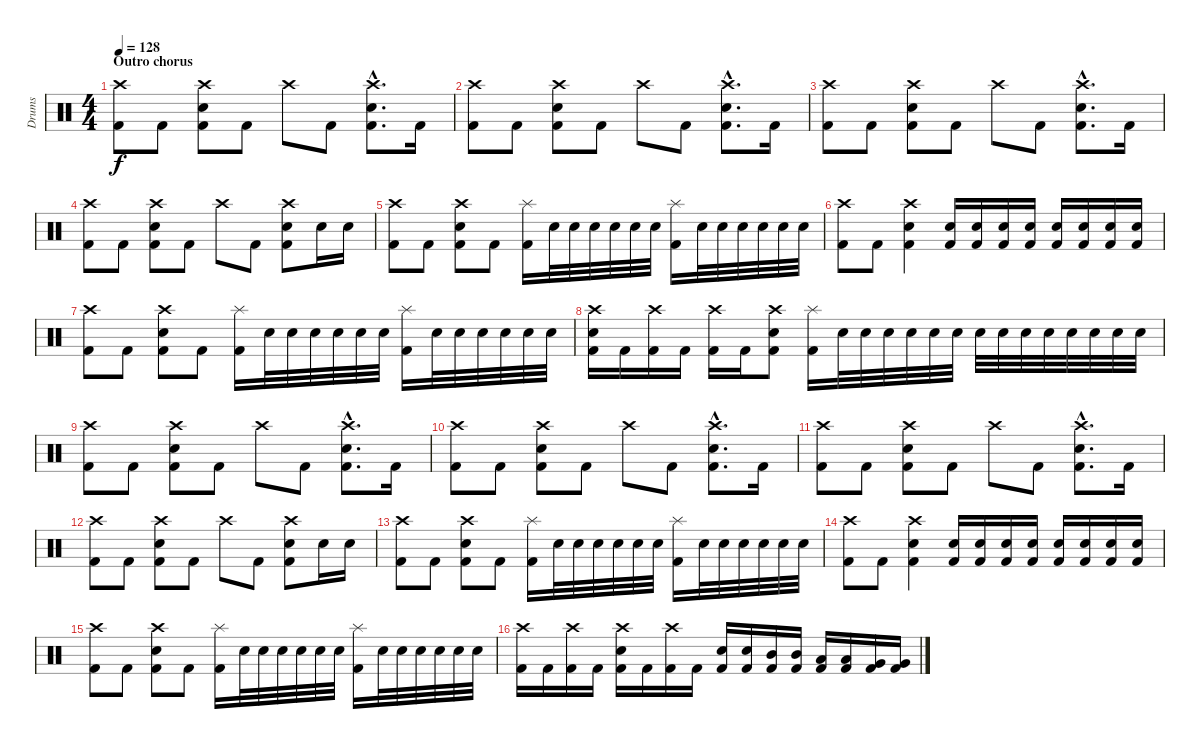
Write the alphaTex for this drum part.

\track ("Drums" "Drums") {instrument percussion}
\staff {score}
\articulation defaults
\ts (4 4)
\section ("" "Outro chorus")
\tempo 128
\clef neutral
\ks c
("Crash high (hit)" "Kick (hit) 2").8{dy f} "Kick (hit) 2".8 ("Crash high (hit)" "Electric Snare (hit)" "Kick (hit) 2").8 "Kick (hit) 2".8 "Crash high (hit)".8 "Kick (hit) 2".8 ("Crash high (hit)"{hac} "Electric Snare (hit)"{hac} "Kick (hit) 2"{hac}).8{d} "Kick (hit) 2".16 |
("Crash high (hit)" "Kick (hit) 2").8 "Kick (hit) 2".8 ("Crash high (hit)" "Electric Snare (hit)" "Kick (hit) 2").8 "Kick (hit) 2".8 "Crash high (hit)".8 "Kick (hit) 2".8 ("Crash high (hit)"{hac} "Electric Snare (hit)"{hac} "Kick (hit) 2"{hac}).8{d} "Kick (hit) 2".16 |
("Crash high (hit)" "Kick (hit) 2").8 "Kick (hit) 2".8 ("Crash high (hit)" "Electric Snare (hit)" "Kick (hit) 2").8 "Kick (hit) 2".8 "Crash high (hit)".8 "Kick (hit) 2".8 ("Crash high (hit)"{hac} "Electric Snare (hit)"{hac} "Kick (hit) 2"{hac}).8{d} "Kick (hit) 2".16 |
("Crash high (hit)" "Kick (hit) 2").8 "Kick (hit) 2".8 ("Crash high (hit)" "Electric Snare (hit)" "Kick (hit) 2").8 "Kick (hit) 2".8 "Crash high (hit)".8 "Kick (hit) 2".8 ("Crash high (hit)" "Electric Snare (hit)" "Kick (hit) 2").8 "Electric Snare (hit)".16 "Electric Snare (hit)".16 |
("Crash high (hit)" "Kick (hit) 2").8 "Kick (hit) 2".8 ("Crash high (hit)" "Electric Snare (hit)" "Kick (hit) 2").8 "Kick (hit) 2".8 ("Splash (hit)" "Kick (hit) 2").16 "Electric Snare (hit)".32 "Electric Snare (hit)".32 "Electric Snare (hit)".32 "Electric Snare (hit)".32 "Electric Snare (hit)".32 "Electric Snare (hit)".32 ("Splash (hit)" "Kick (hit) 2").16 "Electric Snare (hit)".32 "Electric Snare (hit)".32 "Electric Snare (hit)".32 "Electric Snare (hit)".32 "Electric Snare (hit)".32 "Electric Snare (hit)".32 |
("Crash high (hit)" "Kick (hit) 2").8 "Kick (hit) 2".8 ("Crash high (hit)" "Electric Snare (hit)" "Kick (hit) 2").4 ("Electric Snare (hit)" "Kick (hit) 2").16 ("Electric Snare (hit)" "Kick (hit) 2").16 ("Electric Snare (hit)" "Kick (hit) 2").16 ("Electric Snare (hit)" "Kick (hit) 2").16 ("Electric Snare (hit)" "Kick (hit) 2").16 ("Electric Snare (hit)" "Kick (hit) 2").16 ("Electric Snare (hit)" "Kick (hit) 2").16 ("Electric Snare (hit)" "Kick (hit) 2").16 |
("Crash high (hit)" "Kick (hit) 2").8 "Kick (hit) 2".8 ("Crash high (hit)" "Electric Snare (hit)" "Kick (hit) 2").8 "Kick (hit) 2".8 ("Splash (hit)" "Kick (hit) 2").16 "Electric Snare (hit)".32 "Electric Snare (hit)".32 "Electric Snare (hit)".32 "Electric Snare (hit)".32 "Electric Snare (hit)".32 "Electric Snare (hit)".32 ("Splash (hit)" "Kick (hit) 2").16 "Electric Snare (hit)".32 "Electric Snare (hit)".32 "Electric Snare (hit)".32 "Electric Snare (hit)".32 "Electric Snare (hit)".32 "Electric Snare (hit)".32 |
("Crash high (hit)" "Electric Snare (hit)" "Kick (hit) 2").16 "Kick (hit) 2".16 ("Crash high (hit)" "Kick (hit) 2").16 "Kick (hit) 2".16 ("Crash high (hit)" "Kick (hit) 2").16 "Kick (hit) 2".16 ("Crash high (hit)" "Electric Snare (hit)" "Kick (hit) 2").8 ("Splash (hit)" "Kick (hit) 2").16 "Electric Snare (hit)".32 "Electric Snare (hit)".32 "Electric Snare (hit)".32 "Electric Snare (hit)".32 "Electric Snare (hit)".32 "Electric Snare (hit)".32 "Electric Snare (hit)".32 "Electric Snare (hit)".32 "Electric Snare (hit)".32 "Electric Snare (hit)".32 "Electric Snare (hit)".32 "Electric Snare (hit)".32 "Electric Snare (hit)".32 "Electric Snare (hit)".32 |
("Crash high (hit)" "Kick (hit) 2").8 "Kick (hit) 2".8 ("Crash high (hit)" "Electric Snare (hit)" "Kick (hit) 2").8 "Kick (hit) 2".8 "Crash high (hit)".8 "Kick (hit) 2".8 ("Crash high (hit)"{hac} "Electric Snare (hit)"{hac} "Kick (hit) 2"{hac}).8{d} "Kick (hit) 2".16 |
("Crash high (hit)" "Kick (hit) 2").8 "Kick (hit) 2".8 ("Crash high (hit)" "Electric Snare (hit)" "Kick (hit) 2").8 "Kick (hit) 2".8 "Crash high (hit)".8 "Kick (hit) 2".8 ("Crash high (hit)"{hac} "Electric Snare (hit)"{hac} "Kick (hit) 2"{hac}).8{d} "Kick (hit) 2".16 |
("Crash high (hit)" "Kick (hit) 2").8 "Kick (hit) 2".8 ("Crash high (hit)" "Electric Snare (hit)" "Kick (hit) 2").8 "Kick (hit) 2".8 "Crash high (hit)".8 "Kick (hit) 2".8 ("Crash high (hit)"{hac} "Electric Snare (hit)"{hac} "Kick (hit) 2"{hac}).8{d} "Kick (hit) 2".16 |
("Crash high (hit)" "Kick (hit) 2").8 "Kick (hit) 2".8 ("Crash high (hit)" "Electric Snare (hit)" "Kick (hit) 2").8 "Kick (hit) 2".8 "Crash high (hit)".8 "Kick (hit) 2".8 ("Crash high (hit)" "Electric Snare (hit)" "Kick (hit) 2").8 "Electric Snare (hit)".16 "Electric Snare (hit)".16 |
("Crash high (hit)" "Kick (hit) 2").8 "Kick (hit) 2".8 ("Crash high (hit)" "Electric Snare (hit)" "Kick (hit) 2").8 "Kick (hit) 2".8 ("Splash (hit)" "Kick (hit) 2").16 "Electric Snare (hit)".32 "Electric Snare (hit)".32 "Electric Snare (hit)".32 "Electric Snare (hit)".32 "Electric Snare (hit)".32 "Electric Snare (hit)".32 ("Splash (hit)" "Kick (hit) 2").16 "Electric Snare (hit)".32 "Electric Snare (hit)".32 "Electric Snare (hit)".32 "Electric Snare (hit)".32 "Electric Snare (hit)".32 "Electric Snare (hit)".32 |
("Crash high (hit)" "Kick (hit) 2").8 "Kick (hit) 2".8 ("Crash high (hit)" "Electric Snare (hit)" "Kick (hit) 2").4 ("Electric Snare (hit)" "Kick (hit) 2").16 ("Electric Snare (hit)" "Kick (hit) 2").16 ("Electric Snare (hit)" "Kick (hit) 2").16 ("Electric Snare (hit)" "Kick (hit) 2").16 ("Electric Snare (hit)" "Kick (hit) 2").16 ("Electric Snare (hit)" "Kick (hit) 2").16 ("Electric Snare (hit)" "Kick (hit) 2").16 ("Electric Snare (hit)" "Kick (hit) 2").16 |
("Crash high (hit)" "Kick (hit) 2").8 "Kick (hit) 2".8 ("Crash high (hit)" "Electric Snare (hit)" "Kick (hit) 2").8 "Kick (hit) 2".8 ("Splash (hit)" "Kick (hit) 2").16 "Electric Snare (hit)".32 "Electric Snare (hit)".32 "Electric Snare (hit)".32 "Electric Snare (hit)".32 "Electric Snare (hit)".32 "Electric Snare (hit)".32 ("Splash (hit)" "Kick (hit) 2").16 "Electric Snare (hit)".32 "Electric Snare (hit)".32 "Electric Snare (hit)".32 "Electric Snare (hit)".32 "Electric Snare (hit)".32 "Electric Snare (hit)".32 |
("Crash high (hit)" "Kick (hit) 2").16 "Kick (hit) 2".16 ("Crash high (hit)" "Kick (hit) 2").16 "Kick (hit) 2".16 ("Crash high (hit)" "Electric Snare (hit)" "Kick (hit) 2").16 "Kick (hit) 2".16 ("Crash high (hit)" "Kick (hit) 2").16 "Kick (hit) 2".16 ("Electric Snare (hit)" "Kick (hit) 2").16 ("Electric Snare (hit)" "Kick (hit) 2").16 ("Mid Tom (hit)" "Kick (hit) 2").16 ("Mid Tom (hit)" "Kick (hit) 2").16 ("Low Tom (hit)" "Kick (hit) 2").16 ("Low Tom (hit)" "Kick (hit) 2").16 ("Very Low Tom (hit)" "Kick (hit) 2").16 ("Very Low Tom (hit)" "Kick (hit) 2").16
